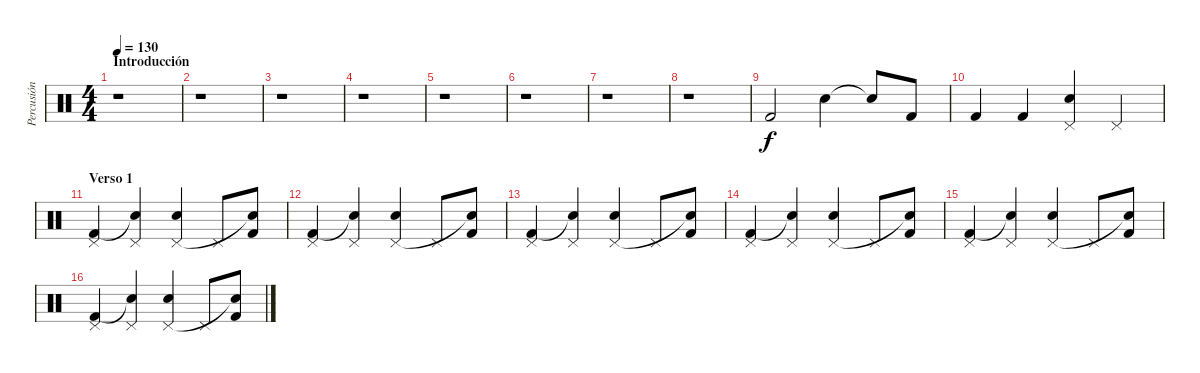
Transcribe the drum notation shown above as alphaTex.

\track ("Percusión" "Percusión") {instrument percussion}
\staff {score}
\articulation defaults
\ts (4 4)
\section ("" "Introducción")
\tempo 130
\clef neutral
\ks c
r.1{dy f} |
r.1 |
r.1 |
r.1 |
r.1 |
r.1 |
r.1 |
r.1 |
"Kick (hit) 2".2 "Snare (hit) 2".4 "Snare (hit)"{t}.8 "Kick (hit) 2".8 |
"Kick (hit) 2".4 "Kick (hit) 2".4 ("Snare (hit) 2" "Pedal Hi-Hat (hit)").4 "Pedal Hi-Hat (hit)".4 |
\section ("" "Verso 1")
("Kick (hit) 2" "Pedal Hi-Hat (hit)").4 ("Snare (hit)"{t} "Pedal Hi-Hat (hit)").4 ("Snare (hit) 2" "Pedal Hi-Hat (hit)").4 "Pedal Hi-Hat (hit)".8 ("Kick (hit) 2" "Snare (hit)"{t}).8 |
("Kick (hit) 2" "Pedal Hi-Hat (hit)").4 ("Snare (hit)"{t} "Pedal Hi-Hat (hit)").4 ("Snare (hit) 2" "Pedal Hi-Hat (hit)").4 "Pedal Hi-Hat (hit)".8 ("Kick (hit) 2" "Snare (hit)"{t}).8 |
("Kick (hit) 2" "Pedal Hi-Hat (hit)").4 ("Snare (hit)"{t} "Pedal Hi-Hat (hit)").4 ("Snare (hit) 2" "Pedal Hi-Hat (hit)").4 "Pedal Hi-Hat (hit)".8 ("Kick (hit) 2" "Snare (hit)"{t}).8 |
("Kick (hit) 2" "Pedal Hi-Hat (hit)").4 ("Snare (hit)"{t} "Pedal Hi-Hat (hit)").4 ("Snare (hit) 2" "Pedal Hi-Hat (hit)").4 "Pedal Hi-Hat (hit)".8 ("Kick (hit) 2" "Snare (hit)"{t}).8 |
("Kick (hit) 2" "Pedal Hi-Hat (hit)").4 ("Snare (hit)"{t} "Pedal Hi-Hat (hit)").4 ("Snare (hit) 2" "Pedal Hi-Hat (hit)").4 "Pedal Hi-Hat (hit)".8 ("Kick (hit) 2" "Snare (hit)"{t}).8 |
("Kick (hit) 2" "Pedal Hi-Hat (hit)").4 ("Snare (hit)"{t} "Pedal Hi-Hat (hit)").4 ("Snare (hit) 2" "Pedal Hi-Hat (hit)").4 "Pedal Hi-Hat (hit)".8 ("Kick (hit) 2" "Snare (hit)"{t}).8
